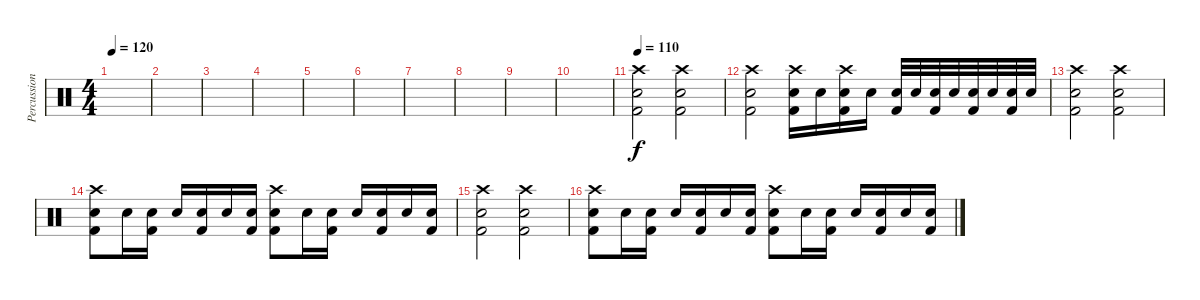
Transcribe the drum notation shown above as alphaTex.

\track ("Percussion" "Percussion") {instrument percussion}
\staff {score}
\articulation defaults
\ts (4 4)
\tempo 120
\clef neutral
\ks c
|
|
|
|
|
|
|
|
|
|
\tempo 110
("Kick (hit) 2" "Snare (hit) 2" "Crash high (hit)").2 ("Kick (hit) 2" "Snare (hit) 2" "Crash high (hit)").2 |
("Kick (hit) 2" "Snare (hit) 2" "Crash high (hit)").2 ("Crash high (hit)" "Kick (hit) 2" "Snare (hit) 2").16 "Snare (hit) 2".16 ("Crash high (hit)" "Kick (hit) 2" "Snare (hit) 2").16 "Snare (hit) 2".16 ("Kick (hit) 2" "Snare (hit) 2").32 "Snare (hit) 2".32 ("Kick (hit) 2" "Snare (hit) 2").32 "Snare (hit) 2".32 ("Kick (hit) 2" "Snare (hit) 2").32 "Snare (hit) 2".32 ("Kick (hit) 2" "Snare (hit) 2").32 "Snare (hit) 2".32 |
("Kick (hit) 2" "Snare (hit) 2" "Crash high (hit)").2 ("Snare (hit) 2" "Kick (hit) 2" "Crash high (hit)").2 |
("Kick (hit) 2" "Snare (hit) 2" "Crash high (hit)").8 "Snare (hit) 2".16 ("Kick (hit) 2" "Snare (hit) 2").16 "Snare (hit) 2".16 ("Kick (hit) 2" "Snare (hit) 2").16 "Snare (hit) 2".16 ("Kick (hit) 2" "Snare (hit) 2").16 ("Kick (hit) 2" "Snare (hit) 2" "Crash high (hit)").8 "Snare (hit) 2".16 ("Kick (hit) 2" "Snare (hit) 2").16 "Snare (hit) 2".16 ("Kick (hit) 2" "Snare (hit) 2").16 "Snare (hit) 2".16 ("Kick (hit) 2" "Snare (hit) 2").16 |
("Kick (hit) 2" "Snare (hit) 2" "Crash high (hit)").2 ("Snare (hit) 2" "Kick (hit) 2" "Crash high (hit)").2 |
("Kick (hit) 2" "Snare (hit) 2" "Crash high (hit)").8 "Snare (hit) 2".16 ("Kick (hit) 2" "Snare (hit) 2").16 "Snare (hit) 2".16 ("Kick (hit) 2" "Snare (hit) 2").16 "Snare (hit) 2".16 ("Kick (hit) 2" "Snare (hit) 2").16 ("Kick (hit) 2" "Snare (hit) 2" "Crash high (hit)").8 "Snare (hit) 2".16 ("Kick (hit) 2" "Snare (hit) 2").16 "Snare (hit) 2".16 ("Kick (hit) 2" "Snare (hit) 2").16 "Snare (hit) 2".16 ("Kick (hit) 2" "Snare (hit) 2").16
